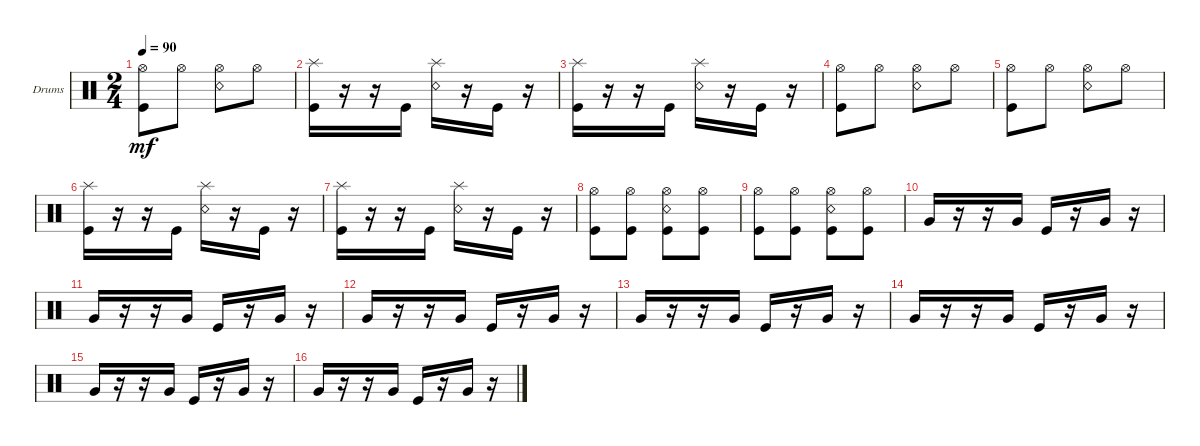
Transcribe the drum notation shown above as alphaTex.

\defaultSystemsLayout 4
\bracketExtendMode groupsimilarinstruments
\firstSystemTrackNameOrientation horizontal
\otherSystemsTrackNameOrientation horizontal
\track ("Drumkit" "Drums") {instrument percussion}
\staff {score}
\articulation defaults
\ts (2 4)
\tempo 90
\clef neutral
\ks c
("Hi-Hat (open)" "Kick (hit)").8{dy mf} "Hi-Hat (open)".8 ("Hi-Hat (open)" "Snare (rim shot)").8 "Hi-Hat (open)".8 |
("Splash (hit)" "Kick (hit)").16 r.16 r.16 "Kick (hit)".16 ("Snare (rim shot)" "Splash (hit)").16 r.16 "Kick (hit)".16 r.16 |
("Splash (hit)" "Kick (hit)").16 r.16 r.16 "Kick (hit)".16 ("Snare (rim shot)" "Splash (hit)").16 r.16 "Kick (hit)".16 r.16 |
("Hi-Hat (open)" "Kick (hit)").8 "Hi-Hat (open)".8 ("Hi-Hat (open)" "Snare (rim shot)").8 "Hi-Hat (open)".8 |
("Hi-Hat (open)" "Kick (hit)").8 "Hi-Hat (open)".8 ("Hi-Hat (open)" "Snare (rim shot)").8 "Hi-Hat (open)".8 |
("Splash (hit)" "Kick (hit)").16 r.16 r.16 "Kick (hit)".16 ("Snare (rim shot)" "Splash (hit)").16 r.16 "Kick (hit)".16 r.16 |
("Splash (hit)" "Kick (hit)").16 r.16 r.16 "Kick (hit)".16 ("Snare (rim shot)" "Splash (hit)").16 r.16 "Kick (hit)".16 r.16 |
("Hi-Hat (open)" "Kick (hit)").8 ("Hi-Hat (open)" "Kick (hit)").8 ("Hi-Hat (open)" "Snare (rim shot)" "Kick (hit)").8 ("Hi-Hat (open)" "Kick (hit)").8 |
("Hi-Hat (open)" "Kick (hit)").8 ("Hi-Hat (open)" "Kick (hit)").8 ("Hi-Hat (open)" "Snare (rim shot)" "Kick (hit)").8 ("Hi-Hat (open)" "Kick (hit)").8 |
"Very Low Tom (hit)".16 r.16 r.16 "Very Low Tom (hit)".16 "Kick (hit)".16 r.16 "Very Low Tom (hit)".16 r.16 |
"Very Low Tom (hit)".16 r.16 r.16 "Very Low Tom (hit)".16 "Kick (hit)".16 r.16 "Very Low Tom (hit)".16 r.16 |
"Very Low Tom (hit)".16 r.16 r.16 "Very Low Tom (hit)".16 "Kick (hit)".16 r.16 "Very Low Tom (hit)".16 r.16 |
"Very Low Tom (hit)".16 r.16 r.16 "Very Low Tom (hit)".16 "Kick (hit)".16 r.16 "Very Low Tom (hit)".16 r.16 |
"Very Low Tom (hit)".16 r.16 r.16 "Very Low Tom (hit)".16 "Kick (hit)".16 r.16 "Very Low Tom (hit)".16 r.16 |
"Very Low Tom (hit)".16 r.16 r.16 "Very Low Tom (hit)".16 "Kick (hit)".16 r.16 "Very Low Tom (hit)".16 r.16 |
"Very Low Tom (hit)".16 r.16 r.16 "Very Low Tom (hit)".16 "Kick (hit)".16 r.16 "Very Low Tom (hit)".16 r.16
